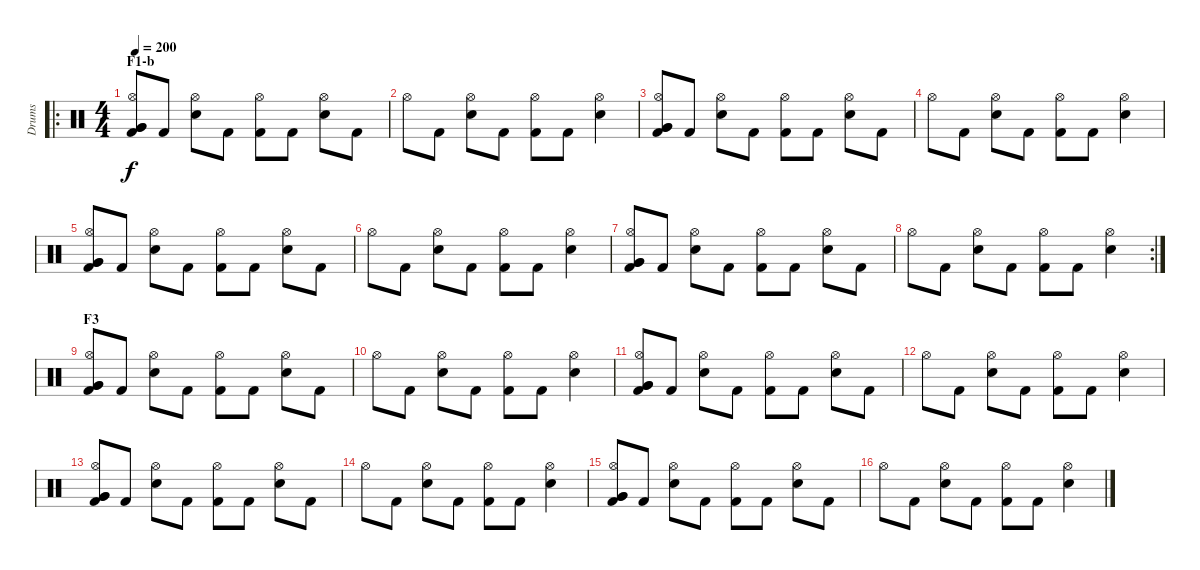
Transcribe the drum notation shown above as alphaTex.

\track ("Drums" "Drums") {instrument percussion}
\staff {score}
\articulation defaults
\ro
\ts (4 4)
\section ("" "F1-b")
\tempo 200
\clef neutral
\ks c
("Very Low Tom (hit)" "Very Low Tom (hit)" "Hi-Hat (open)" "Kick (hit) 2").8{dy f} "Kick (hit) 2".8 ("Electric Snare (hit)" "Hi-Hat (open)").8 "Kick (hit) 2".8 ("Hi-Hat (open)" "Kick (hit) 2").8 "Kick (hit) 2".8 ("Electric Snare (hit)" "Hi-Hat (open)").8 "Kick (hit) 2".8 |
"Hi-Hat (open)".8 "Kick (hit) 2".8 ("Electric Snare (hit)" "Hi-Hat (open)").8 "Kick (hit) 2".8 ("Hi-Hat (open)" "Kick (hit) 2").8 "Kick (hit) 2".8 ("Electric Snare (hit)" "Hi-Hat (open)").4 |
("Very Low Tom (hit)" "Very Low Tom (hit)" "Hi-Hat (open)" "Kick (hit) 2").8 "Kick (hit) 2".8 ("Electric Snare (hit)" "Hi-Hat (open)").8 "Kick (hit) 2".8 ("Hi-Hat (open)" "Kick (hit) 2").8 "Kick (hit) 2".8 ("Electric Snare (hit)" "Hi-Hat (open)").8 "Kick (hit) 2".8 |
"Hi-Hat (open)".8 "Kick (hit) 2".8 ("Electric Snare (hit)" "Hi-Hat (open)").8 "Kick (hit) 2".8 ("Hi-Hat (open)" "Kick (hit) 2").8 "Kick (hit) 2".8 ("Electric Snare (hit)" "Hi-Hat (open)").4 |
("Very Low Tom (hit)" "Very Low Tom (hit)" "Hi-Hat (open)" "Kick (hit) 2").8 "Kick (hit) 2".8 ("Electric Snare (hit)" "Hi-Hat (open)").8 "Kick (hit) 2".8 ("Hi-Hat (open)" "Kick (hit) 2").8 "Kick (hit) 2".8 ("Electric Snare (hit)" "Hi-Hat (open)").8 "Kick (hit) 2".8 |
"Hi-Hat (open)".8 "Kick (hit) 2".8 ("Electric Snare (hit)" "Hi-Hat (open)").8 "Kick (hit) 2".8 ("Hi-Hat (open)" "Kick (hit) 2").8 "Kick (hit) 2".8 ("Electric Snare (hit)" "Hi-Hat (open)").4 |
("Very Low Tom (hit)" "Very Low Tom (hit)" "Hi-Hat (open)" "Kick (hit) 2").8 "Kick (hit) 2".8 ("Electric Snare (hit)" "Hi-Hat (open)").8 "Kick (hit) 2".8 ("Hi-Hat (open)" "Kick (hit) 2").8 "Kick (hit) 2".8 ("Electric Snare (hit)" "Hi-Hat (open)").8 "Kick (hit) 2".8 |
\rc 2 "Hi-Hat (open)".8 "Kick (hit) 2".8
("Electric Snare (hit)" "Hi-Hat (open)").8 "Kick (hit) 2".8 ("Hi-Hat (open)" "Kick (hit) 2").8 "Kick (hit) 2".8 ("Electric Snare (hit)" "Hi-Hat (open)").4 |
\section ("" "F3")
("Very Low Tom (hit)" "Very Low Tom (hit)" "Hi-Hat (open)" "Kick (hit) 2").8 "Kick (hit) 2".8 ("Electric Snare (hit)" "Hi-Hat (open)").8 "Kick (hit) 2".8 ("Hi-Hat (open)" "Kick (hit) 2").8 "Kick (hit) 2".8 ("Electric Snare (hit)" "Hi-Hat (open)").8 "Kick (hit) 2".8 |
"Hi-Hat (open)".8 "Kick (hit) 2".8 ("Electric Snare (hit)" "Hi-Hat (open)").8 "Kick (hit) 2".8 ("Hi-Hat (open)" "Kick (hit) 2").8 "Kick (hit) 2".8 ("Electric Snare (hit)" "Hi-Hat (open)").4 |
("Very Low Tom (hit)" "Very Low Tom (hit)" "Hi-Hat (open)" "Kick (hit) 2").8 "Kick (hit) 2".8 ("Electric Snare (hit)" "Hi-Hat (open)").8 "Kick (hit) 2".8 ("Hi-Hat (open)" "Kick (hit) 2").8 "Kick (hit) 2".8 ("Electric Snare (hit)" "Hi-Hat (open)").8 "Kick (hit) 2".8 |
"Hi-Hat (open)".8 "Kick (hit) 2".8 ("Electric Snare (hit)" "Hi-Hat (open)").8 "Kick (hit) 2".8 ("Hi-Hat (open)" "Kick (hit) 2").8 "Kick (hit) 2".8 ("Electric Snare (hit)" "Hi-Hat (open)").4 |
("Very Low Tom (hit)" "Very Low Tom (hit)" "Hi-Hat (open)" "Kick (hit) 2").8 "Kick (hit) 2".8 ("Electric Snare (hit)" "Hi-Hat (open)").8 "Kick (hit) 2".8 ("Hi-Hat (open)" "Kick (hit) 2").8 "Kick (hit) 2".8 ("Electric Snare (hit)" "Hi-Hat (open)").8 "Kick (hit) 2".8 |
"Hi-Hat (open)".8 "Kick (hit) 2".8 ("Electric Snare (hit)" "Hi-Hat (open)").8 "Kick (hit) 2".8 ("Hi-Hat (open)" "Kick (hit) 2").8 "Kick (hit) 2".8 ("Electric Snare (hit)" "Hi-Hat (open)").4 |
("Very Low Tom (hit)" "Very Low Tom (hit)" "Hi-Hat (open)" "Kick (hit) 2").8 "Kick (hit) 2".8 ("Electric Snare (hit)" "Hi-Hat (open)").8 "Kick (hit) 2".8 ("Hi-Hat (open)" "Kick (hit) 2").8 "Kick (hit) 2".8 ("Electric Snare (hit)" "Hi-Hat (open)").8 "Kick (hit) 2".8 |
"Hi-Hat (open)".8 "Kick (hit) 2".8 ("Electric Snare (hit)" "Hi-Hat (open)").8 "Kick (hit) 2".8 ("Hi-Hat (open)" "Kick (hit) 2").8 "Kick (hit) 2".8 ("Electric Snare (hit)" "Hi-Hat (open)").4
